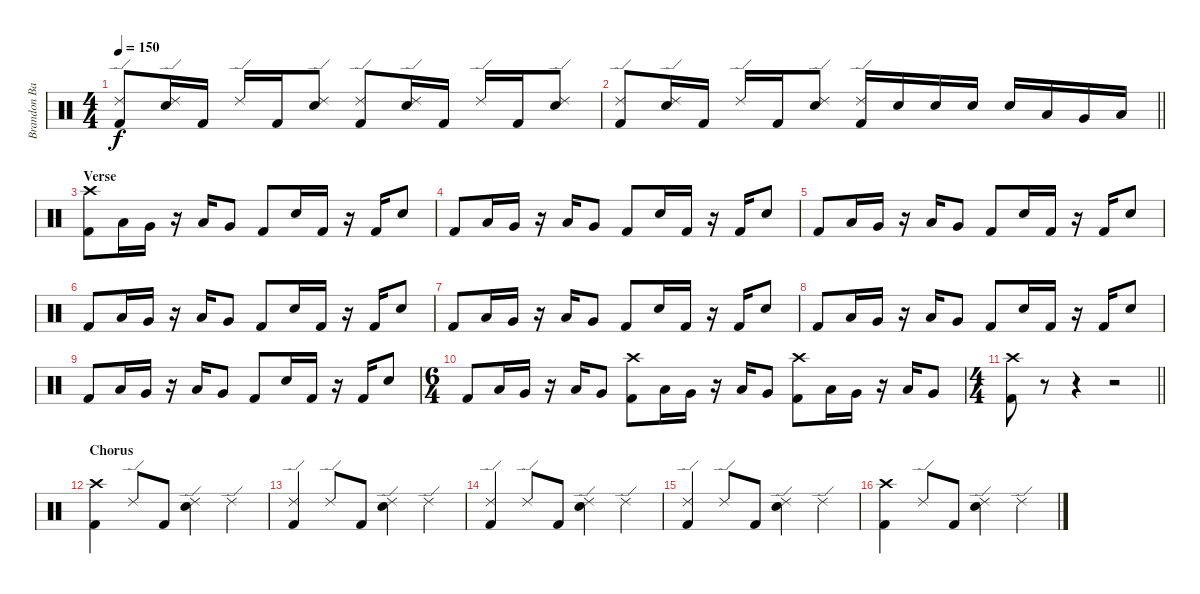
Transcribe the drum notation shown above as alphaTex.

\track ("Brandon Barnes - Drums" "Brandon Ba") {instrument percussion}
\staff {score}
\articulation defaults
\ts (4 4)
\tempo 150
\clef neutral
\ks c
("Ride (edge) 2" "Kick (hit) 2").8{dy f} ("Snare (hit) 2" "Ride (edge) 2").16 "Kick (hit) 2".16 "Ride (edge) 2".16 "Kick (hit) 2".16 ("Snare (hit) 2" "Ride (edge) 2").8 ("Ride (edge) 2" "Kick (hit) 2").8 ("Snare (hit) 2" "Ride (edge) 2").16 "Kick (hit) 2".16 "Ride (edge) 2".16 "Kick (hit) 2".16 ("Snare (hit) 2" "Ride (edge) 2").8 |
\barLineRight lightlight
("Ride (edge) 2" "Kick (hit) 2").8 ("Snare (hit) 2" "Ride (edge) 2").16 "Kick (hit) 2".16 "Ride (edge) 2".16 "Kick (hit) 2".16 ("Snare (hit) 2" "Ride (edge) 2").8 ("Ride (edge) 2" "Kick (hit) 2").16 "Snare (hit) 2".16 "Snare (hit) 2".16 "Snare (hit) 2".16 "Snare (hit) 2".16 "Low Tom (hit)".16 "Very Low Tom (hit)".16 "Low Floor Tom (hit)".16 |
\section ("" "Verse")
("Crash high (hit)" "Kick (hit) 2").8 "Low Tom (hit)".16 "Very Low Tom (hit)".16 r.16 "Low Floor Tom (hit)".16 "Very Low Tom (hit)".8 "Kick (hit) 2".8 "Snare (hit) 2".16 "Kick (hit) 2".16 r.16 "Kick (hit) 2".16 "Snare (hit) 2".8 |
"Kick (hit) 2".8 "Low Tom (hit)".16 "Very Low Tom (hit)".16 r.16 "Low Floor Tom (hit)".16 "Very Low Tom (hit)".8 "Kick (hit) 2".8 "Snare (hit) 2".16 "Kick (hit) 2".16 r.16 "Kick (hit) 2".16 "Snare (hit) 2".8 |
"Kick (hit) 2".8 "Low Tom (hit)".16 "Very Low Tom (hit)".16 r.16 "Low Floor Tom (hit)".16 "Very Low Tom (hit)".8 "Kick (hit) 2".8 "Snare (hit) 2".16 "Kick (hit) 2".16 r.16 "Kick (hit) 2".16 "Snare (hit) 2".8 |
"Kick (hit) 2".8 "Low Tom (hit)".16 "Very Low Tom (hit)".16 r.16 "Low Floor Tom (hit)".16 "Very Low Tom (hit)".8 "Kick (hit) 2".8 "Snare (hit) 2".16 "Kick (hit) 2".16 r.16 "Kick (hit) 2".16 "Snare (hit) 2".8 |
"Kick (hit) 2".8 "Low Tom (hit)".16 "Very Low Tom (hit)".16 r.16 "Low Floor Tom (hit)".16 "Very Low Tom (hit)".8 "Kick (hit) 2".8 "Snare (hit) 2".16 "Kick (hit) 2".16 r.16 "Kick (hit) 2".16 "Snare (hit) 2".8 |
"Kick (hit) 2".8 "Low Tom (hit)".16 "Very Low Tom (hit)".16 r.16 "Low Floor Tom (hit)".16 "Very Low Tom (hit)".8 "Kick (hit) 2".8 "Snare (hit) 2".16 "Kick (hit) 2".16 r.16 "Kick (hit) 2".16 "Snare (hit) 2".8 |
"Kick (hit) 2".8 "Low Tom (hit)".16 "Very Low Tom (hit)".16 r.16 "Low Floor Tom (hit)".16 "Very Low Tom (hit)".8 "Kick (hit) 2".8 "Snare (hit) 2".16 "Kick (hit) 2".16 r.16 "Kick (hit) 2".16 "Snare (hit) 2".8 |
\ts (6 4)
"Kick (hit) 2".8 "Low Tom (hit)".16 "Very Low Tom (hit)".16 r.16 "Low Floor Tom (hit)".16 "Very Low Tom (hit)".8 ("Crash high (hit)" "Kick (hit) 2").8 "Low Tom (hit)".16 "Very Low Tom (hit)".16 r.16 "Low Floor Tom (hit)".16 "Very Low Tom (hit)".8 ("Crash high (hit)" "Kick (hit) 2").8 "Low Tom (hit)".16 "Very Low Tom (hit)".16 r.16 "Low Floor Tom (hit)".16 "Very Low Tom (hit)".8 |
\ts (4 4)
\barLineRight lightlight
("Crash high (hit)" "Kick (hit) 2").8 r.8 r.4 r.2 |
\section ("" "Chorus")
("Kick (hit) 2" "Crash high (hit)").4 "Ride (edge) 2".8 "Kick (hit) 2".8 ("Snare (hit) 2" "Ride (edge) 2").4 "Ride (edge) 2".4 |
("Kick (hit) 2" "Ride (edge) 2").4 "Ride (edge) 2".8 "Kick (hit) 2".8 ("Snare (hit) 2" "Ride (edge) 2").4 "Ride (edge) 2".4 |
("Kick (hit) 2" "Ride (edge) 2").4 "Ride (edge) 2".8 "Kick (hit) 2".8 ("Snare (hit) 2" "Ride (edge) 2").4 "Ride (edge) 2".4 |
("Kick (hit) 2" "Ride (edge) 2").4 "Ride (edge) 2".8 "Kick (hit) 2".8 ("Snare (hit) 2" "Ride (edge) 2").4 "Ride (edge) 2".4 |
("Kick (hit) 2" "Crash high (hit)").4 "Ride (edge) 2".8 "Kick (hit) 2".8 ("Snare (hit) 2" "Ride (edge) 2").4 "Ride (edge) 2".4
